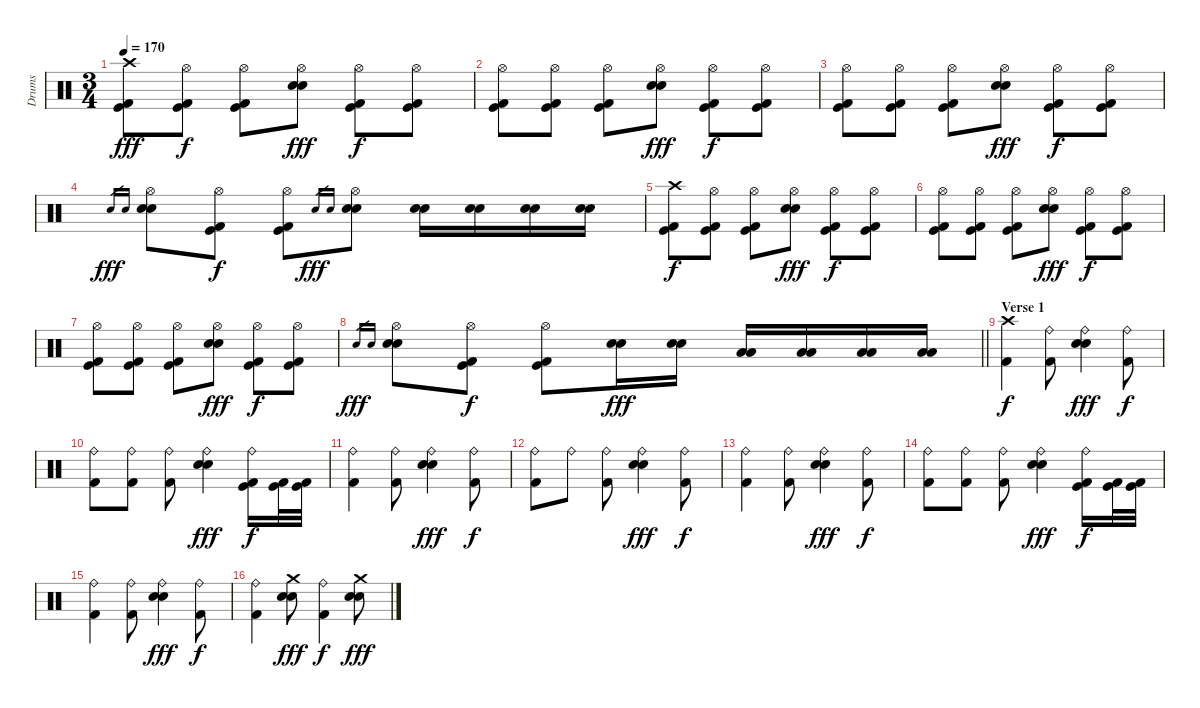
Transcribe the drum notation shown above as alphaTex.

\track ("Drums" "Drums") {instrument percussion}
\staff {score}
\articulation defaults
\ts (3 4)
\tempo 170
\clef neutral
\ks c
("Crash high (hit)" "Kick (hit)" "Kick (hit) 2").8{dy fff volume 16} ("Hi-Hat (open)" "Kick (hit)" "Kick (hit) 2").8{dy f} ("Hi-Hat (open)" "Kick (hit)" "Kick (hit) 2").8 ("Hi-Hat (open)" "Electric Snare (hit)" "Electric Snare (hit)").8{dy fff} ("Hi-Hat (open)" "Kick (hit)" "Kick (hit) 2").8{dy f} ("Hi-Hat (open)" "Kick (hit)" "Kick (hit) 2").8 |
("Hi-Hat (open)" "Kick (hit)" "Kick (hit) 2").8 ("Hi-Hat (open)" "Kick (hit)" "Kick (hit) 2").8 ("Hi-Hat (open)" "Kick (hit)" "Kick (hit) 2").8 ("Hi-Hat (open)" "Electric Snare (hit)" "Electric Snare (hit)").8{dy fff} ("Hi-Hat (open)" "Kick (hit)" "Kick (hit) 2").8{dy f} ("Hi-Hat (open)" "Kick (hit)" "Kick (hit) 2").8 |
("Hi-Hat (open)" "Kick (hit)" "Kick (hit) 2").8 ("Hi-Hat (open)" "Kick (hit)" "Kick (hit) 2").8 ("Hi-Hat (open)" "Kick (hit)" "Kick (hit) 2").8 ("Hi-Hat (open)" "Electric Snare (hit)" "Electric Snare (hit)").8{dy fff} ("Hi-Hat (open)" "Kick (hit)" "Kick (hit) 2").8{dy f} ("Hi-Hat (open)" "Kick (hit)" "Kick (hit) 2").8 |
"Electric Snare (hit)".16{gr dy fff} "Electric Snare (hit)".16{gr} ("Hi-Hat (open)" "Electric Snare (hit)" "Electric Snare (hit)").8 ("Hi-Hat (open)" "Kick (hit)" "Kick (hit) 2").8{dy f} ("Hi-Hat (open)" "Kick (hit)" "Kick (hit) 2").8 "Electric Snare (hit)".16{gr dy fff} "Electric Snare (hit)".16{gr} ("Hi-Hat (open)" "Electric Snare (hit)" "Electric Snare (hit)").8 ("Electric Snare (hit)" "Electric Snare (hit)").16 ("Electric Snare (hit)" "Electric Snare (hit)").16 ("Electric Snare (hit)" "Electric Snare (hit)").16 ("Electric Snare (hit)" "Electric Snare (hit)").16 |
("Crash high (hit)" "Kick (hit)" "Kick (hit) 2").8{dy f} ("Hi-Hat (open)" "Kick (hit)" "Kick (hit) 2").8 ("Hi-Hat (open)" "Kick (hit)" "Kick (hit) 2").8 ("Hi-Hat (open)" "Electric Snare (hit)" "Electric Snare (hit)").8{dy fff} ("Hi-Hat (open)" "Kick (hit)" "Kick (hit) 2").8{dy f} ("Hi-Hat (open)" "Kick (hit)" "Kick (hit) 2").8 |
("Hi-Hat (open)" "Kick (hit)" "Kick (hit) 2").8 ("Hi-Hat (open)" "Kick (hit)" "Kick (hit) 2").8 ("Hi-Hat (open)" "Kick (hit)" "Kick (hit) 2").8 ("Hi-Hat (open)" "Electric Snare (hit)" "Electric Snare (hit)").8{dy fff} ("Hi-Hat (open)" "Kick (hit)" "Kick (hit) 2").8{dy f} ("Hi-Hat (open)" "Kick (hit)" "Kick (hit) 2").8 |
("Hi-Hat (open)" "Kick (hit)" "Kick (hit) 2").8 ("Hi-Hat (open)" "Kick (hit)" "Kick (hit) 2").8 ("Hi-Hat (open)" "Kick (hit)" "Kick (hit) 2").8 ("Hi-Hat (open)" "Electric Snare (hit)" "Electric Snare (hit)").8{dy fff} ("Hi-Hat (open)" "Kick (hit)" "Kick (hit) 2").8{dy f} ("Hi-Hat (open)" "Kick (hit)" "Kick (hit) 2").8 |
\barLineRight lightlight "Electric Snare (hit)".16{gr dy fff} "Electric Snare (hit)".16{gr}
("Hi-Hat (open)" "Electric Snare (hit)" "Electric Snare (hit)").8 ("Hi-Hat (open)" "Kick (hit)" "Kick (hit) 2").8{dy f} ("Hi-Hat (open)" "Kick (hit)" "Kick (hit) 2").8 ("Electric Snare (hit)" "Electric Snare (hit)").16{dy fff} ("Electric Snare (hit)" "Electric Snare (hit)").16 ("Low Tom (hit)" "Low Tom (hit)").16 ("Low Tom (hit)" "Low Tom (hit)").16 ("Low Floor Tom (hit)" "Low Floor Tom (hit)").16 ("Low Floor Tom (hit)" "Low Floor Tom (hit)").16 |
\section ("" "Verse 1")
("Crash high (hit)" "Kick (hit) 2").4{dy f} ("Ride (bell)" "Kick (hit) 2").8 ("Ride (bell)" "Electric Snare (hit)" "Electric Snare (hit)").4{dy fff} ("Ride (bell)" "Kick (hit) 2").8{dy f} |
("Ride (bell)" "Kick (hit) 2").8 ("Ride (bell)" "Kick (hit) 2").8 ("Ride (bell)" "Kick (hit) 2").8 ("Ride (bell)" "Electric Snare (hit)" "Electric Snare (hit)").4{dy fff} ("Ride (bell)" "Kick (hit)" "Kick (hit) 2").16{dy f} ("Kick (hit)" "Kick (hit) 2").32 ("Kick (hit)" "Kick (hit) 2").32 |
("Ride (bell)" "Kick (hit) 2").4 ("Ride (bell)" "Kick (hit) 2").8 ("Ride (bell)" "Electric Snare (hit)" "Electric Snare (hit)").4{dy fff} ("Ride (bell)" "Kick (hit) 2").8{dy f} |
("Ride (bell)" "Kick (hit) 2").8 "Ride (bell)".8 ("Ride (bell)" "Kick (hit) 2").8 ("Ride (bell)" "Electric Snare (hit)" "Electric Snare (hit)").4{dy fff} ("Ride (bell)" "Kick (hit) 2").8{dy f} |
("Ride (bell)" "Kick (hit) 2").4 ("Ride (bell)" "Kick (hit) 2").8 ("Ride (bell)" "Electric Snare (hit)" "Electric Snare (hit)").4{dy fff} ("Ride (bell)" "Kick (hit) 2").8{dy f} |
("Ride (bell)" "Kick (hit) 2").8 ("Ride (bell)" "Kick (hit) 2").8 ("Ride (bell)" "Kick (hit) 2").8 ("Ride (bell)" "Electric Snare (hit)" "Electric Snare (hit)").4{dy fff} ("Ride (bell)" "Kick (hit)" "Kick (hit) 2").16{dy f} ("Kick (hit)" "Kick (hit) 2").32 ("Kick (hit)" "Kick (hit) 2").32 |
("Ride (bell)" "Kick (hit) 2").4 ("Ride (bell)" "Kick (hit) 2").8 ("Ride (bell)" "Electric Snare (hit)" "Electric Snare (hit)").4{dy fff} ("Ride (bell)" "Kick (hit) 2").8{dy f} |
("Ride (bell)" "Kick (hit) 2").4 ("Crash medium (hit)" "Electric Snare (hit)" "Electric Snare (hit)").8{dy fff} ("Ride (bell)" "Kick (hit) 2").4{dy f} ("Crash medium (hit)" "Electric Snare (hit)" "Electric Snare (hit)").8{dy fff}
